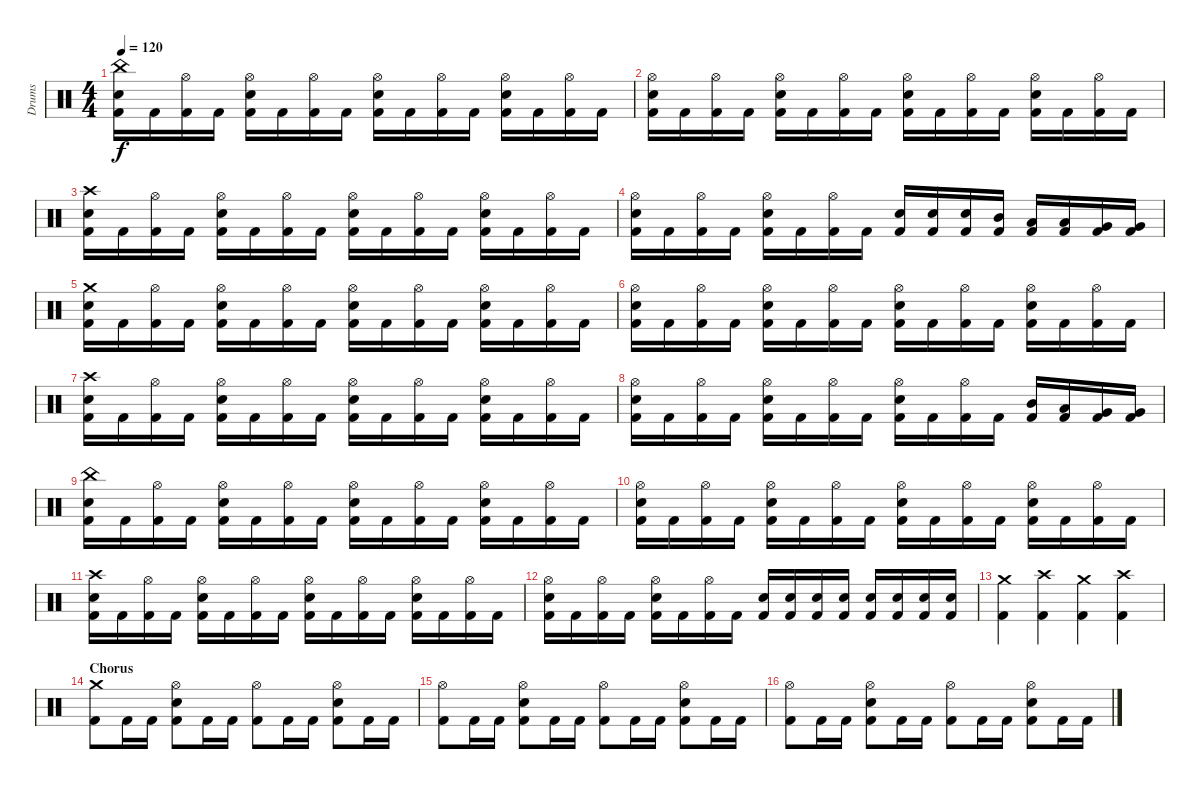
\track ("Drums" "Drums") {instrument percussion}
\staff {score}
\articulation defaults
\ts (4 4)
\tempo 120
\clef neutral
\ks c
("China (hit)" "Snare (hit) 2" "Kick (hit) 2").16{dy f} "Kick (hit) 2".16 ("Hi-Hat (open)" "Kick (hit) 2").16 "Kick (hit) 2".16 ("Hi-Hat (open)" "Snare (hit) 2" "Kick (hit) 2").16 "Kick (hit) 2".16 ("Hi-Hat (open)" "Kick (hit) 2").16 "Kick (hit) 2".16 ("Hi-Hat (open)" "Snare (hit) 2" "Kick (hit) 2").16 "Kick (hit) 2".16 ("Hi-Hat (open)" "Kick (hit) 2").16 "Kick (hit) 2".16 ("Hi-Hat (open)" "Snare (hit) 2" "Kick (hit) 2").16 "Kick (hit) 2".16 ("Hi-Hat (open)" "Kick (hit) 2").16 "Kick (hit) 2".16 |
("Hi-Hat (open)" "Snare (hit) 2" "Kick (hit) 2").16 "Kick (hit) 2".16 ("Hi-Hat (open)" "Kick (hit) 2").16 "Kick (hit) 2".16 ("Hi-Hat (open)" "Snare (hit) 2" "Kick (hit) 2").16 "Kick (hit) 2".16 ("Hi-Hat (open)" "Kick (hit) 2").16 "Kick (hit) 2".16 ("Hi-Hat (open)" "Snare (hit) 2" "Kick (hit) 2").16 "Kick (hit) 2".16 ("Hi-Hat (open)" "Kick (hit) 2").16 "Kick (hit) 2".16 ("Hi-Hat (open)" "Snare (hit) 2" "Kick (hit) 2").16 "Kick (hit) 2".16 ("Hi-Hat (open)" "Kick (hit) 2").16 "Kick (hit) 2".16 |
("Crash high (hit)" "Snare (hit) 2" "Kick (hit) 2").16 "Kick (hit) 2".16 ("Hi-Hat (open)" "Kick (hit) 2").16 "Kick (hit) 2".16 ("Hi-Hat (open)" "Snare (hit) 2" "Kick (hit) 2").16 "Kick (hit) 2".16 ("Hi-Hat (open)" "Kick (hit) 2").16 "Kick (hit) 2".16 ("Hi-Hat (open)" "Snare (hit) 2" "Kick (hit) 2").16 "Kick (hit) 2".16 ("Hi-Hat (open)" "Kick (hit) 2").16 "Kick (hit) 2".16 ("Hi-Hat (open)" "Snare (hit) 2" "Kick (hit) 2").16 "Kick (hit) 2".16 ("Hi-Hat (open)" "Kick (hit) 2").16 "Kick (hit) 2".16 |
("Hi-Hat (open)" "Snare (hit) 2" "Kick (hit) 2").16 "Kick (hit) 2".16 ("Hi-Hat (open)" "Kick (hit) 2").16 "Kick (hit) 2".16 ("Hi-Hat (open)" "Snare (hit) 2" "Kick (hit) 2").16 "Kick (hit) 2".16 ("Hi-Hat (open)" "Kick (hit) 2").16 "Kick (hit) 2".16 ("Snare (hit) 2" "Kick (hit) 2").16 ("Snare (hit) 2" "Kick (hit) 2").16 ("Snare (hit) 2" "Kick (hit) 2").16 ("Mid Tom (hit)" "Kick (hit) 2").16 ("Low Tom (hit)" "Kick (hit) 2").16 ("Low Tom (hit)" "Kick (hit) 2").16 ("Very Low Tom (hit)" "Kick (hit) 2").16 ("Very Low Tom (hit)" "Kick (hit) 2").16 |
("Crash medium (hit)" "Snare (hit) 2" "Kick (hit) 2").16 "Kick (hit) 2".16 ("Hi-Hat (open)" "Kick (hit) 2").16 "Kick (hit) 2".16 ("Hi-Hat (open)" "Snare (hit) 2" "Kick (hit) 2").16 "Kick (hit) 2".16 ("Hi-Hat (open)" "Kick (hit) 2").16 "Kick (hit) 2".16 ("Hi-Hat (open)" "Snare (hit) 2" "Kick (hit) 2").16 "Kick (hit) 2".16 ("Hi-Hat (open)" "Kick (hit) 2").16 "Kick (hit) 2".16 ("Hi-Hat (open)" "Snare (hit) 2" "Kick (hit) 2").16 "Kick (hit) 2".16 ("Hi-Hat (open)" "Kick (hit) 2").16 "Kick (hit) 2".16 |
("Hi-Hat (open)" "Snare (hit) 2" "Kick (hit) 2").16 "Kick (hit) 2".16 ("Hi-Hat (open)" "Kick (hit) 2").16 "Kick (hit) 2".16 ("Hi-Hat (open)" "Snare (hit) 2" "Kick (hit) 2").16 "Kick (hit) 2".16 ("Hi-Hat (open)" "Kick (hit) 2").16 "Kick (hit) 2".16 ("Hi-Hat (open)" "Snare (hit) 2" "Kick (hit) 2").16 "Kick (hit) 2".16 ("Hi-Hat (open)" "Kick (hit) 2").16 "Kick (hit) 2".16 ("Hi-Hat (open)" "Snare (hit) 2" "Kick (hit) 2").16 "Kick (hit) 2".16 ("Hi-Hat (open)" "Kick (hit) 2").16 "Kick (hit) 2".16 |
("Crash high (hit)" "Snare (hit) 2" "Kick (hit) 2").16 "Kick (hit) 2".16 ("Hi-Hat (open)" "Kick (hit) 2").16 "Kick (hit) 2".16 ("Hi-Hat (open)" "Snare (hit) 2" "Kick (hit) 2").16 "Kick (hit) 2".16 ("Hi-Hat (open)" "Kick (hit) 2").16 "Kick (hit) 2".16 ("Hi-Hat (open)" "Snare (hit) 2" "Kick (hit) 2").16 "Kick (hit) 2".16 ("Hi-Hat (open)" "Kick (hit) 2").16 "Kick (hit) 2".16 ("Hi-Hat (open)" "Snare (hit) 2" "Kick (hit) 2").16 "Kick (hit) 2".16 ("Hi-Hat (open)" "Kick (hit) 2").16 "Kick (hit) 2".16 |
("Hi-Hat (open)" "Snare (hit) 2" "Kick (hit) 2").16 "Kick (hit) 2".16 ("Hi-Hat (open)" "Kick (hit) 2").16 "Kick (hit) 2".16 ("Hi-Hat (open)" "Snare (hit) 2" "Kick (hit) 2").16 "Kick (hit) 2".16 ("Hi-Hat (open)" "Kick (hit) 2").16 "Kick (hit) 2".16 ("Hi-Hat (open)" "Snare (hit) 2" "Kick (hit) 2").16 "Kick (hit) 2".16 ("Hi-Hat (open)" "Kick (hit) 2").16 "Kick (hit) 2".16 ("Mid Tom (hit)" "Kick (hit) 2").16 ("Low Tom (hit)" "Kick (hit) 2").16 ("Very Low Tom (hit)" "Kick (hit) 2").16 ("Very Low Tom (hit)" "Kick (hit) 2").16 |
("China (hit)" "Snare (hit) 2" "Kick (hit) 2").16 "Kick (hit) 2".16 ("Hi-Hat (open)" "Kick (hit) 2").16 "Kick (hit) 2".16 ("Hi-Hat (open)" "Snare (hit) 2" "Kick (hit) 2").16 "Kick (hit) 2".16 ("Hi-Hat (open)" "Kick (hit) 2").16 "Kick (hit) 2".16 ("Hi-Hat (open)" "Snare (hit) 2" "Kick (hit) 2").16 "Kick (hit) 2".16 ("Hi-Hat (open)" "Kick (hit) 2").16 "Kick (hit) 2".16 ("Hi-Hat (open)" "Snare (hit) 2" "Kick (hit) 2").16 "Kick (hit) 2".16 ("Hi-Hat (open)" "Kick (hit) 2").16 "Kick (hit) 2".16 |
("Hi-Hat (open)" "Snare (hit) 2" "Kick (hit) 2").16 "Kick (hit) 2".16 ("Hi-Hat (open)" "Kick (hit) 2").16 "Kick (hit) 2".16 ("Hi-Hat (open)" "Snare (hit) 2" "Kick (hit) 2").16 "Kick (hit) 2".16 ("Hi-Hat (open)" "Kick (hit) 2").16 "Kick (hit) 2".16 ("Hi-Hat (open)" "Snare (hit) 2" "Kick (hit) 2").16 "Kick (hit) 2".16 ("Hi-Hat (open)" "Kick (hit) 2").16 "Kick (hit) 2".16 ("Hi-Hat (open)" "Snare (hit) 2" "Kick (hit) 2").16 "Kick (hit) 2".16 ("Hi-Hat (open)" "Kick (hit) 2").16 "Kick (hit) 2".16 |
("Crash high (hit)" "Snare (hit) 2" "Kick (hit) 2").16 "Kick (hit) 2".16 ("Hi-Hat (open)" "Kick (hit) 2").16 "Kick (hit) 2".16 ("Hi-Hat (open)" "Snare (hit) 2" "Kick (hit) 2").16 "Kick (hit) 2".16 ("Hi-Hat (open)" "Kick (hit) 2").16 "Kick (hit) 2".16 ("Hi-Hat (open)" "Snare (hit) 2" "Kick (hit) 2").16 "Kick (hit) 2".16 ("Hi-Hat (open)" "Kick (hit) 2").16 "Kick (hit) 2".16 ("Hi-Hat (open)" "Snare (hit) 2" "Kick (hit) 2").16 "Kick (hit) 2".16 ("Hi-Hat (open)" "Kick (hit) 2").16 "Kick (hit) 2".16 |
("Hi-Hat (open)" "Snare (hit) 2" "Kick (hit) 2").16 "Kick (hit) 2".16 ("Hi-Hat (open)" "Kick (hit) 2").16 "Kick (hit) 2".16 ("Hi-Hat (open)" "Snare (hit) 2" "Kick (hit) 2").16 "Kick (hit) 2".16 ("Hi-Hat (open)" "Kick (hit) 2").16 "Kick (hit) 2".16 ("Snare (hit) 2" "Kick (hit) 2").16 ("Snare (hit) 2" "Kick (hit) 2").16 ("Snare (hit) 2" "Kick (hit) 2").16 ("Snare (hit) 2" "Kick (hit) 2").16 ("Snare (hit) 2" "Kick (hit) 2").16 ("Snare (hit) 2" "Kick (hit) 2").16 ("Snare (hit) 2" "Kick (hit) 2").16 ("Snare (hit) 2" "Kick (hit) 2").16 |
("Crash medium (hit)" "Kick (hit) 2").4 ("Crash high (hit)" "Kick (hit) 2").4 ("Crash medium (hit)" "Kick (hit) 2").4 ("Crash high (hit)" "Kick (hit) 2").4 |
\section ("" "Chorus")
("Crash medium (hit)" "Kick (hit) 2").8 "Kick (hit) 2".16 "Kick (hit) 2".16 ("Hi-Hat (open)" "Snare (hit) 2" "Kick (hit) 2").8 "Kick (hit) 2".16 "Kick (hit) 2".16 ("Hi-Hat (open)" "Kick (hit) 2").8 "Kick (hit) 2".16 "Kick (hit) 2".16 ("Hi-Hat (open)" "Snare (hit) 2" "Kick (hit) 2").8 "Kick (hit) 2".16 "Kick (hit) 2".16 |
("Hi-Hat (open)" "Kick (hit) 2").8 "Kick (hit) 2".16 "Kick (hit) 2".16 ("Hi-Hat (open)" "Snare (hit) 2" "Kick (hit) 2").8 "Kick (hit) 2".16 "Kick (hit) 2".16 ("Hi-Hat (open)" "Kick (hit) 2").8 "Kick (hit) 2".16 "Kick (hit) 2".16 ("Hi-Hat (open)" "Snare (hit) 2" "Kick (hit) 2").8 "Kick (hit) 2".16 "Kick (hit) 2".16 |
("Hi-Hat (open)" "Kick (hit) 2").8 "Kick (hit) 2".16 "Kick (hit) 2".16 ("Hi-Hat (open)" "Snare (hit) 2" "Kick (hit) 2").8 "Kick (hit) 2".16 "Kick (hit) 2".16 ("Hi-Hat (open)" "Kick (hit) 2").8 "Kick (hit) 2".16 "Kick (hit) 2".16 ("Hi-Hat (open)" "Snare (hit) 2" "Kick (hit) 2").8 "Kick (hit) 2".16 "Kick (hit) 2".16
